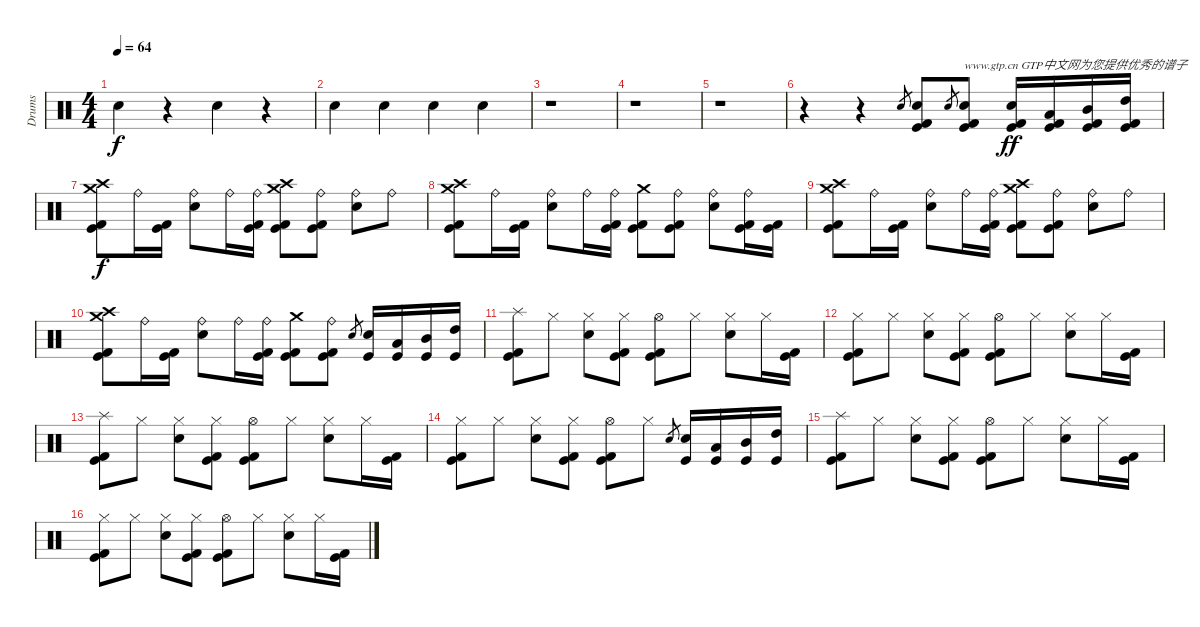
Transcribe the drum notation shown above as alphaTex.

\track ("Drums" "Drums") {instrument percussion}
\staff {score}
\articulation defaults
\ts (4 4)
\tempo 64
\clef neutral
\ks c "Electric Snare (hit)".4{dy f}
r.4 "Electric Snare (hit)".4 r.4 |
"Electric Snare (hit)".4 "Electric Snare (hit)".4 "Electric Snare (hit)".4 "Electric Snare (hit)".4 |
r.1 |
r.1 |
r.1 |
r.4 r.4 "Electric Snare (hit)".8{gr} ("Electric Snare (hit)" "Kick (hit) 2" "Kick (hit)").8 "Electric Snare (hit)".8{gr} ("Electric Snare (hit)" "Kick (hit) 2" "Kick (hit)").8{txt "www.gtp.cn GTP中文网为您提供优秀的谱子"} ("Electric Snare (hit)" "Kick (hit) 2" "Kick (hit)").16{dy ff} ("Low Tom (hit)" "Kick (hit) 2" "Kick (hit)").16 ("Mid Tom (hit)" "Kick (hit) 2" "Kick (hit)").16 ("High Tom (hit)" "Kick (hit) 2" "Kick (hit)").16 |
("Crash medium (hit)" "Crash high (hit)" "Kick (hit) 2" "Kick (hit)").8{dy f} "Ride (bell)".16 ("Kick (hit) 2" "Kick (hit)").16 ("Ride (bell)" "Electric Snare (hit)").8 "Ride (bell)".16 ("Ride (bell)" "Kick (hit) 2" "Kick (hit)").16 ("Crash medium (hit)" "Crash high (hit)" "Kick (hit) 2" "Kick (hit)").8 ("Ride (bell)" "Kick (hit) 2" "Kick (hit)").8 ("Ride (bell)" "Electric Snare (hit)").8 "Ride (bell)".8 |
("Crash medium (hit)" "Crash high (hit)" "Kick (hit) 2" "Kick (hit)").8 "Ride (bell)".16 ("Kick (hit) 2" "Kick (hit)").16 ("Ride (bell)" "Electric Snare (hit)").8 "Ride (bell)".16 ("Ride (bell)" "Kick (hit) 2" "Kick (hit)").16 ("Crash medium (hit)" "Kick (hit) 2" "Kick (hit)").8 ("Ride (bell)" "Kick (hit) 2" "Kick (hit)").8 ("Ride (bell)" "Electric Snare (hit)").8 ("Ride (bell)" "Kick (hit) 2" "Kick (hit)").16 ("Kick (hit) 2" "Kick (hit)").16 |
("Crash medium (hit)" "Crash high (hit)" "Kick (hit) 2" "Kick (hit)").8 "Ride (bell)".16 ("Kick (hit) 2" "Kick (hit)").16 ("Ride (bell)" "Electric Snare (hit)").8 "Ride (bell)".16 ("Ride (bell)" "Kick (hit) 2" "Kick (hit)").16 ("Crash medium (hit)" "Crash high (hit)" "Kick (hit) 2" "Kick (hit)").8 ("Ride (bell)" "Kick (hit) 2" "Kick (hit)").8 ("Ride (bell)" "Electric Snare (hit)").8 "Ride (bell)".8 |
("Crash medium (hit)" "Crash high (hit)" "Kick (hit) 2" "Kick (hit)").8 "Ride (bell)".16 ("Kick (hit) 2" "Kick (hit)").16 ("Ride (bell)" "Electric Snare (hit)").8 "Ride (bell)".16 ("Ride (bell)" "Kick (hit) 2" "Kick (hit)").16 ("Crash medium (hit)" "Kick (hit) 2" "Kick (hit)").8 ("Ride (bell)" "Kick (hit) 2" "Kick (hit)").8 "Electric Snare (hit)".8{gr} ("Electric Snare (hit)" "Kick (hit)").16 ("Low Tom (hit)" "Kick (hit)").16 ("Mid Tom (hit)" "Kick (hit)").16 ("High Tom (hit)" "Kick (hit)").16 |
("Splash (hit)" "Kick (hit) 2" "Kick (hit)").8 "Hi-Hat (closed)".8 ("Hi-Hat (closed)" "Electric Snare (hit)").8 ("Hi-Hat (closed)" "Kick (hit) 2" "Kick (hit)").8 ("Hi-Hat (open)" "Kick (hit) 2" "Kick (hit)").8 "Hi-Hat (closed)".8 ("Hi-Hat (closed)" "Electric Snare (hit)").8 "Hi-Hat (closed)".16 ("Kick (hit) 2" "Kick (hit)").16 |
("Hi-Hat (closed)" "Kick (hit) 2" "Kick (hit)").8 "Hi-Hat (closed)".8 ("Hi-Hat (closed)" "Electric Snare (hit)").8 ("Hi-Hat (closed)" "Kick (hit) 2" "Kick (hit)").8 ("Hi-Hat (open)" "Kick (hit) 2" "Kick (hit)").8 "Hi-Hat (closed)".8 ("Hi-Hat (closed)" "Electric Snare (hit)").8 "Hi-Hat (closed)".16 ("Kick (hit) 2" "Kick (hit)").16 |
("Splash (hit)" "Kick (hit) 2" "Kick (hit)").8 "Hi-Hat (closed)".8 ("Hi-Hat (closed)" "Electric Snare (hit)").8 ("Hi-Hat (closed)" "Kick (hit) 2" "Kick (hit)").8 ("Hi-Hat (open)" "Kick (hit) 2" "Kick (hit)").8 "Hi-Hat (closed)".8 ("Hi-Hat (closed)" "Electric Snare (hit)").8 "Hi-Hat (closed)".16 ("Kick (hit) 2" "Kick (hit)").16 |
("Hi-Hat (closed)" "Kick (hit) 2" "Kick (hit)").8 "Hi-Hat (closed)".8 ("Hi-Hat (closed)" "Electric Snare (hit)").8 ("Hi-Hat (closed)" "Kick (hit) 2" "Kick (hit)").8 ("Hi-Hat (open)" "Kick (hit) 2" "Kick (hit)").8 "Hi-Hat (closed)".8 "Electric Snare (hit)".8{gr} ("Electric Snare (hit)" "Kick (hit)").16 ("Low Tom (hit)" "Kick (hit)").16 ("Mid Tom (hit)" "Kick (hit)").16 ("High Tom (hit)" "Kick (hit)").16 |
("Splash (hit)" "Kick (hit) 2" "Kick (hit)").8 "Hi-Hat (closed)".8 ("Hi-Hat (closed)" "Electric Snare (hit)").8 ("Hi-Hat (closed)" "Kick (hit) 2" "Kick (hit)").8 ("Hi-Hat (open)" "Kick (hit) 2" "Kick (hit)").8 "Hi-Hat (closed)".8 ("Hi-Hat (closed)" "Electric Snare (hit)").8 "Hi-Hat (closed)".16 ("Kick (hit) 2" "Kick (hit)").16 |
("Hi-Hat (closed)" "Kick (hit) 2" "Kick (hit)").8 "Hi-Hat (closed)".8 ("Hi-Hat (closed)" "Electric Snare (hit)").8 ("Hi-Hat (closed)" "Kick (hit) 2" "Kick (hit)").8 ("Hi-Hat (open)" "Kick (hit) 2" "Kick (hit)").8 "Hi-Hat (closed)".8 ("Hi-Hat (closed)" "Electric Snare (hit)").8 "Hi-Hat (closed)".16 ("Kick (hit) 2" "Kick (hit)").16
